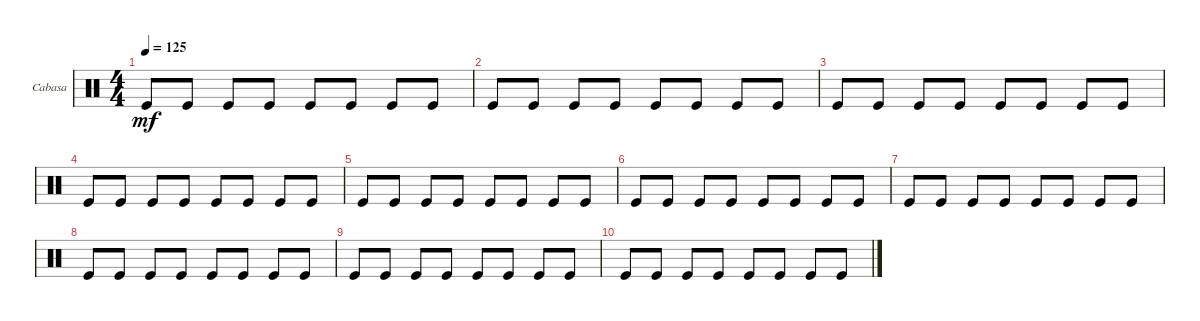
\defaultSystemsLayout 4
\bracketExtendMode groupsimilarinstruments
\firstSystemTrackNameOrientation horizontal
\otherSystemsTrackNameOrientation horizontal
\track ("Cabasa" "Cabasa") {instrument percussion}
\staff {score}
\articulation defaults
\ts (4 4)
\tempo 125
\clef neutral
\ks c "Kick (hit)".8{dy mf} "Kick (hit)".8 "Kick (hit)".8 "Kick (hit)".8 "Kick (hit)".8 "Kick (hit)".8 "Kick (hit)".8 "Kick (hit)".8
|
"Kick (hit)".8 "Kick (hit)".8 "Kick (hit)".8 "Kick (hit)".8 "Kick (hit)".8 "Kick (hit)".8 "Kick (hit)".8 "Kick (hit)".8 |
"Kick (hit)".8 "Kick (hit)".8 "Kick (hit)".8 "Kick (hit)".8 "Kick (hit)".8 "Kick (hit)".8 "Kick (hit)".8 "Kick (hit)".8 |
"Kick (hit)".8 "Kick (hit)".8 "Kick (hit)".8 "Kick (hit)".8 "Kick (hit)".8 "Kick (hit)".8 "Kick (hit)".8 "Kick (hit)".8 |
"Kick (hit)".8 "Kick (hit)".8 "Kick (hit)".8 "Kick (hit)".8 "Kick (hit)".8 "Kick (hit)".8 "Kick (hit)".8 "Kick (hit)".8 |
"Kick (hit)".8 "Kick (hit)".8 "Kick (hit)".8 "Kick (hit)".8 "Kick (hit)".8 "Kick (hit)".8 "Kick (hit)".8 "Kick (hit)".8 |
"Kick (hit)".8 "Kick (hit)".8 "Kick (hit)".8 "Kick (hit)".8 "Kick (hit)".8 "Kick (hit)".8 "Kick (hit)".8 "Kick (hit)".8 |
"Kick (hit)".8 "Kick (hit)".8 "Kick (hit)".8 "Kick (hit)".8 "Kick (hit)".8 "Kick (hit)".8 "Kick (hit)".8 "Kick (hit)".8 |
"Kick (hit)".8 "Kick (hit)".8 "Kick (hit)".8 "Kick (hit)".8 "Kick (hit)".8 "Kick (hit)".8 "Kick (hit)".8 "Kick (hit)".8 |
"Kick (hit)".8 "Kick (hit)".8 "Kick (hit)".8 "Kick (hit)".8 "Kick (hit)".8 "Kick (hit)".8 "Kick (hit)".8 "Kick (hit)".8
